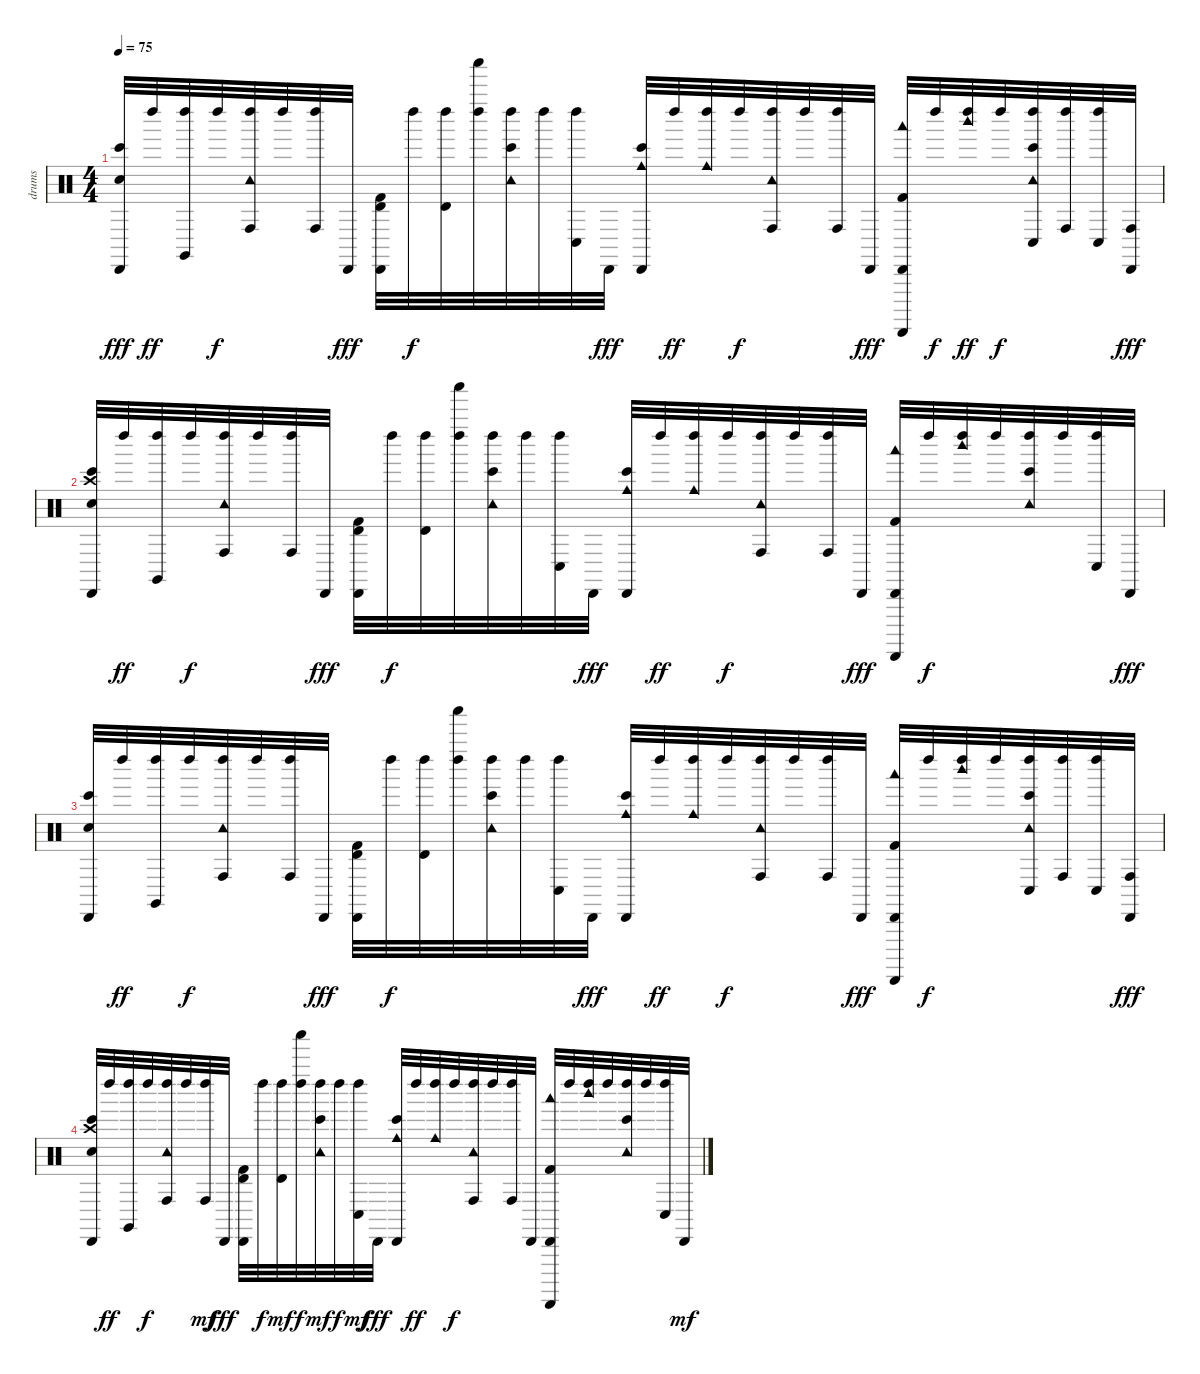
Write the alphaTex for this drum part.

\track ("drums" "drums") {instrument percussion}
\staff {score}
\articulation defaults
\ts (4 4)
\tempo 75
\clef neutral
\ks c
("Snare (hit) 2" "Bongo High (hit)" "Cabasa (hit)").32{dy fff} "Left Maraca (hit)".32{dy ff} ("Claves (hit)" "Left Maraca (hit)").32 "Left Maraca (hit)".32{dy f} ("Conga high (hit)" "Tambourine (hit)" "Left Maraca (hit)").32 "Left Maraca (hit)".32 ("Conga high (hit)" "Left Maraca (hit)").32 "Cabasa (hit)".32{dy fff} ("Timbale high (hit)" "Kick (hit) 2" "Cabasa (hit)").32 "Left Maraca (hit)".32{dy f} ("Timbale high (hit)" "Left Maraca (hit)").32 ("Left Maraca (hit)" "Shaker (hit)").32 ("Bongo High (hit)" "Tambourine (hit)" "Left Maraca (hit)").32 "Left Maraca (hit)".32 ("Conga low (hit)" "Left Maraca (hit)").32 "Cabasa (hit)".32{dy fff} ("Bongo High (hit)" "Cowbell medium (hit)" "Cabasa (hit)").32 "Left Maraca (hit)".32{dy ff} ("Cowbell medium (hit)" "Left Maraca (hit)").32 "Left Maraca (hit)".32{dy f} ("Conga high (hit)" "Tambourine (hit)" "Left Maraca (hit)").32 "Left Maraca (hit)".32 ("Conga high (hit)" "Left Maraca (hit)").32 "Cabasa (hit)".32{dy fff} ("Kick (hit) 2" "Guiro (scrap-return)" "Woodblock low (hit)" "Cabasa (hit)").32 "Left Maraca (hit)".32{dy f} ("Woodblock high (hit)" "Left Maraca (hit)").32{dy ff} "Left Maraca (hit)".32{dy f} ("Bongo High (hit)" "Conga low (hit)" "Tambourine (hit)" "Left Maraca (hit)").32 ("Conga high (hit)" "Left Maraca (hit)").32 ("Conga low (hit)" "Left Maraca (hit)").32 ("Conga high (hit)" "Cabasa (hit)").32{dy fff} |
("Crash high (hit)" "Snare (hit) 2" "Bongo High (hit)" "Cabasa (hit)").32 "Left Maraca (hit)".32{dy ff} ("Claves (hit)" "Left Maraca (hit)").32 "Left Maraca (hit)".32{dy f} ("Conga high (hit)" "Tambourine (hit)" "Left Maraca (hit)").32 "Left Maraca (hit)".32 ("Conga high (hit)" "Left Maraca (hit)").32 "Cabasa (hit)".32{dy fff} ("Timbale high (hit)" "Kick (hit) 2" "Cabasa (hit)").32 "Left Maraca (hit)".32{dy f} ("Timbale high (hit)" "Left Maraca (hit)").32 ("Left Maraca (hit)" "Shaker (hit)").32 ("Bongo High (hit)" "Tambourine (hit)" "Left Maraca (hit)").32 "Left Maraca (hit)".32 ("Conga low (hit)" "Left Maraca (hit)").32 "Cabasa (hit)".32{dy fff} ("Bongo High (hit)" "Cowbell medium (hit)" "Cabasa (hit)").32 "Left Maraca (hit)".32{dy ff} ("Cowbell medium (hit)" "Left Maraca (hit)").32 "Left Maraca (hit)".32{dy f} ("Tambourine (hit)" "Conga high (hit)" "Left Maraca (hit)").32 "Left Maraca (hit)".32 ("Conga high (hit)" "Left Maraca (hit)").32 "Cabasa (hit)".32{dy fff} ("Woodblock low (hit)" "Guiro (scrap-return)" "Kick (hit) 2" "Cabasa (hit)").32 "Left Maraca (hit)".32{dy f} ("Woodblock high (hit)" "Left Maraca (hit)").32 "Left Maraca (hit)".32 ("Bongo High (hit)" "Tambourine (hit)" "Left Maraca (hit)").32 "Left Maraca (hit)".32 ("Conga low (hit)" "Left Maraca (hit)").32 "Cabasa (hit)".32{dy fff} |
("Snare (hit) 2" "Bongo High (hit)" "Cabasa (hit)").32 "Left Maraca (hit)".32{dy ff} ("Claves (hit)" "Left Maraca (hit)").32 "Left Maraca (hit)".32{dy f} ("Conga high (hit)" "Tambourine (hit)" "Left Maraca (hit)").32 "Left Maraca (hit)".32 ("Conga high (hit)" "Left Maraca (hit)").32 "Cabasa (hit)".32{dy fff} ("Timbale high (hit)" "Kick (hit) 2" "Cabasa (hit)").32 "Left Maraca (hit)".32{dy f} ("Timbale high (hit)" "Left Maraca (hit)").32 ("Left Maraca (hit)" "Shaker (hit)").32 ("Bongo High (hit)" "Tambourine (hit)" "Left Maraca (hit)").32 "Left Maraca (hit)".32 ("Conga low (hit)" "Left Maraca (hit)").32 "Cabasa (hit)".32{dy fff} ("Bongo High (hit)" "Cowbell medium (hit)" "Cabasa (hit)").32 "Left Maraca (hit)".32{dy ff} ("Cowbell medium (hit)" "Left Maraca (hit)").32 "Left Maraca (hit)".32{dy f} ("Conga high (hit)" "Tambourine (hit)" "Left Maraca (hit)").32 "Left Maraca (hit)".32 ("Conga high (hit)" "Left Maraca (hit)").32 "Cabasa (hit)".32{dy fff} ("Kick (hit) 2" "Guiro (scrap-return)" "Woodblock low (hit)" "Cabasa (hit)").32 "Left Maraca (hit)".32{dy f} ("Woodblock high (hit)" "Left Maraca (hit)").32 "Left Maraca (hit)".32 ("Bongo High (hit)" "Conga low (hit)" "Tambourine (hit)" "Left Maraca (hit)").32 ("Conga high (hit)" "Left Maraca (hit)").32 ("Conga low (hit)" "Left Maraca (hit)").32 ("Conga high (hit)" "Cabasa (hit)").32{dy fff} |
("Crash high (hit)" "Snare (hit) 2" "Bongo High (hit)" "Cabasa (hit)").32 "Left Maraca (hit)".32{dy ff} ("Claves (hit)" "Left Maraca (hit)").32 "Left Maraca (hit)".32{dy f} ("Conga high (hit)" "Tambourine (hit)" "Left Maraca (hit)").32 "Left Maraca (hit)".32 ("Conga high (hit)" "Left Maraca (hit)").32{dy mf} "Cabasa (hit)".32{dy fff} ("Timbale high (hit)" "Kick (hit) 2" "Cabasa (hit)").32 "Left Maraca (hit)".32{dy f} ("Timbale high (hit)" "Left Maraca (hit)").32{dy mf} ("Left Maraca (hit)" "Shaker (hit)").32{dy f} ("Bongo High (hit)" "Tambourine (hit)" "Left Maraca (hit)").32{dy mf} "Left Maraca (hit)".32{dy f} ("Conga low (hit)" "Left Maraca (hit)").32{dy mf} "Cabasa (hit)".32{dy fff} ("Bongo High (hit)" "Cowbell medium (hit)" "Cabasa (hit)").32 "Left Maraca (hit)".32{dy ff} ("Cowbell medium (hit)" "Left Maraca (hit)").32 "Left Maraca (hit)".32{dy f} ("Left Maraca (hit)" "Tambourine (hit)" "Conga high (hit)").32 "Left Maraca (hit)".32 ("Conga high (hit)" "Left Maraca (hit)").32 "Cabasa (hit)".32 ("Kick (hit) 2" "Guiro (scrap-return)" "Woodblock low (hit)" "Cabasa (hit)").32 "Left Maraca (hit)".32 ("Woodblock high (hit)" "Left Maraca (hit)").32 "Left Maraca (hit)".32 ("Bongo High (hit)" "Tambourine (hit)" "Left Maraca (hit)").32 "Left Maraca (hit)".32 ("Conga low (hit)" "Left Maraca (hit)").32 "Cabasa (hit)".32{dy mf}
